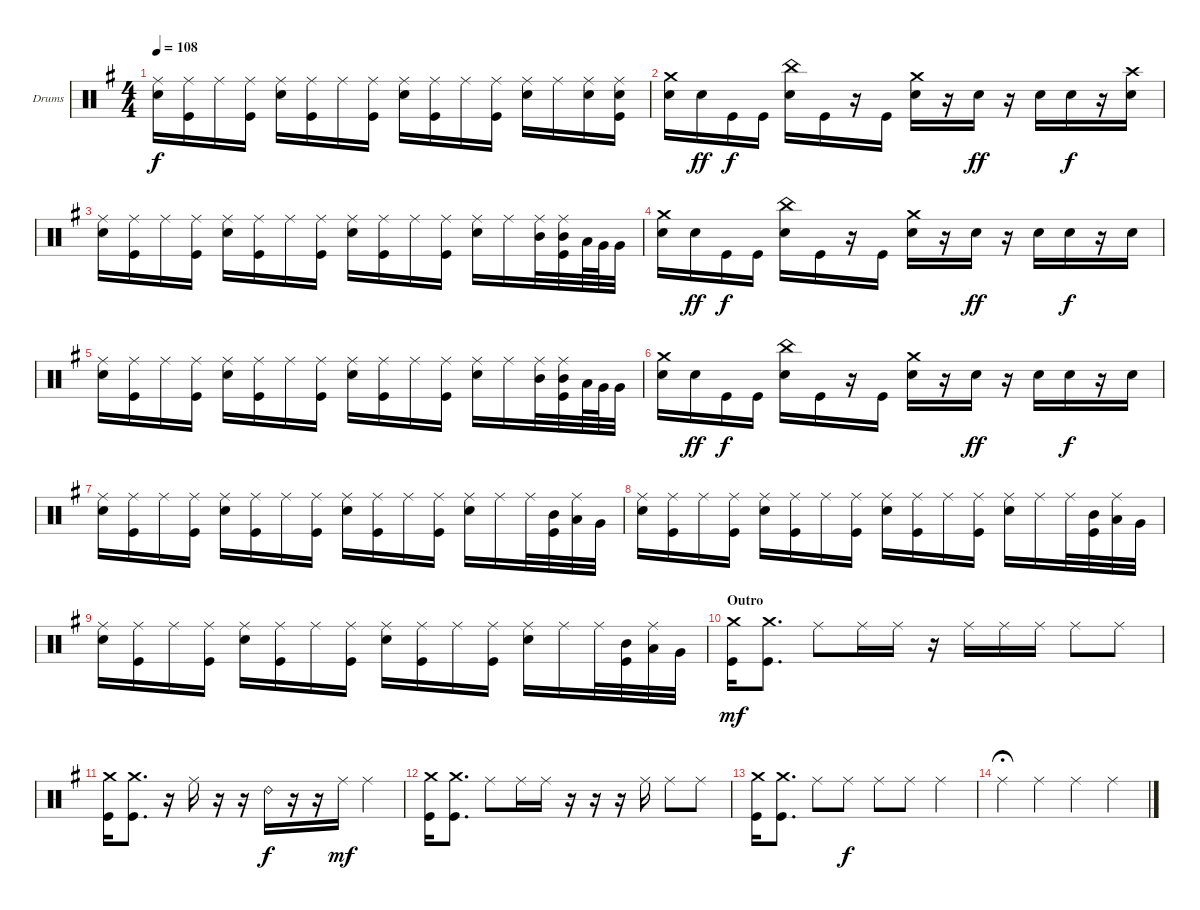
\defaultSystemsLayout 4
\bracketExtendMode groupsimilarinstruments
\firstSystemTrackNameOrientation horizontal
\otherSystemsTrackNameOrientation horizontal
\track ("Drum" "Drums") {instrument percussion}
\staff {score}
\articulation defaults
\ts (4 4)
\tempo 108
\clef neutral
\scale
1.04288
\ks g
("Ride (middle)" "Snare (hit) 2").16{dy f} ("Ride (middle)" "Kick (hit)").16 "Ride (middle)".16 ("Ride (middle)" "Kick (hit)").16 ("Ride (middle)" "Snare (hit) 2").16 ("Ride (middle)" "Kick (hit)").16 "Ride (middle)".16 ("Ride (middle)" "Kick (hit)").16 ("Ride (middle)" "Snare (hit) 2").16 ("Ride (middle)" "Kick (hit)").16 "Ride (middle)".16 ("Ride (middle)" "Kick (hit)").16 ("Ride (middle)" "Snare (hit) 2").16 "Ride (middle)".16 ("Ride (middle)" "Snare (hit) 2").16 ("Ride (middle)" "Snare (hit) 2" "Kick (hit)").16 |
\scale
0.957125 ("Crash medium (hit)" "Snare (hit) 2").16 "Snare (hit) 2".16{dy ff} "Kick (hit)".16{dy f} "Kick (hit)".16 ("China (hit)" "Snare (hit) 2").16 "Kick (hit)".16 r.16 "Kick (hit)".16 ("Crash medium (hit)" "Snare (hit) 2").16 r.16 "Snare (hit) 2".16{dy ff} r.16 "Snare (hit) 2".16 "Snare (hit) 2".16{dy f} r.16 ("Crash high (hit)" "Snare (hit) 2").16 |
\scale
1.04288 ("Ride (middle)" "Snare (hit) 2").16 ("Ride (middle)" "Kick (hit)").16 "Ride (middle)".16 ("Ride (middle)" "Kick (hit)").16 ("Ride (middle)" "Snare (hit) 2").16 ("Ride (middle)" "Kick (hit)").16 "Ride (middle)".16 ("Ride (middle)" "Kick (hit)").16 ("Ride (middle)" "Snare (hit) 2").16 ("Ride (middle)" "Kick (hit)").16 "Ride (middle)".16 ("Ride (middle)" "Kick (hit)").16 ("Ride (middle)" "Snare (hit) 2").16 "Ride (middle)".16 ("Mid Tom (hit)" "Ride (middle)").32 ("Mid Tom (hit)" "Ride (middle)" "Kick (hit)").32 "Low Tom (hit)".64 "Very Low Tom (hit)".64 "Very Low Tom (hit)".32 |
\scale
0.957125 ("Crash medium (hit)" "Snare (hit) 2").16 "Snare (hit) 2".16{dy ff} "Kick (hit)".16{dy f} "Kick (hit)".16 ("China (hit)" "Snare (hit) 2").16 "Kick (hit)".16 r.16 "Kick (hit)".16 ("Crash medium (hit)" "Snare (hit) 2").16 r.16 "Snare (hit) 2".16{dy ff} r.16 "Snare (hit) 2".16 "Snare (hit) 2".16{dy f} r.16 "Snare (hit) 2".16 |
\scale
1.04288 ("Ride (middle)" "Snare (hit) 2").16 ("Ride (middle)" "Kick (hit)").16 "Ride (middle)".16 ("Ride (middle)" "Kick (hit)").16 ("Ride (middle)" "Snare (hit) 2").16 ("Ride (middle)" "Kick (hit)").16 "Ride (middle)".16 ("Ride (middle)" "Kick (hit)").16 ("Ride (middle)" "Snare (hit) 2").16 ("Ride (middle)" "Kick (hit)").16 "Ride (middle)".16 ("Ride (middle)" "Kick (hit)").16 ("Ride (middle)" "Snare (hit) 2").16 "Ride (middle)".16 ("Mid Tom (hit)" "Ride (middle)").32 ("Mid Tom (hit)" "Ride (middle)" "Kick (hit)").32 "Low Tom (hit)".64 "Very Low Tom (hit)".64 "Very Low Tom (hit)".32 |
\scale
0.957125 ("Crash medium (hit)" "Snare (hit) 2").16 "Snare (hit) 2".16{dy ff} "Kick (hit)".16{dy f} "Kick (hit)".16 ("China (hit)" "Snare (hit) 2").16 "Kick (hit)".16 r.16 "Kick (hit)".16 ("Crash medium (hit)" "Snare (hit) 2").16 r.16 "Snare (hit) 2".16{dy ff} r.16 "Snare (hit) 2".16 "Snare (hit) 2".16{dy f} r.16 "Snare (hit) 2".16 |
\scale
1.04288 ("Ride (middle)" "Snare (hit) 2").16 ("Ride (middle)" "Kick (hit)").16 "Ride (middle)".16 ("Ride (middle)" "Kick (hit)").16 ("Ride (middle)" "Snare (hit) 2").16 ("Ride (middle)" "Kick (hit)").16 "Ride (middle)".16 ("Ride (middle)" "Kick (hit)").16 ("Ride (middle)" "Snare (hit) 2").16 ("Ride (middle)" "Kick (hit)").16 "Ride (middle)".16 ("Ride (middle)" "Kick (hit)").16 ("Ride (middle)" "Snare (hit) 2").16 "Ride (middle)".16 "Ride (middle)".32 ("Mid Tom (hit)" "Kick (hit)").32 ("Low Tom (hit)" "Ride (middle)").32 "Very Low Tom (hit)".32 |
\scale
0.957125 ("Ride (middle)" "Snare (hit) 2").16 ("Ride (middle)" "Kick (hit)").16 "Ride (middle)".16 ("Ride (middle)" "Kick (hit)").16 ("Ride (middle)" "Snare (hit) 2").16 ("Ride (middle)" "Kick (hit)").16 "Ride (middle)".16 ("Ride (middle)" "Kick (hit)").16 ("Ride (middle)" "Snare (hit) 2").16 ("Ride (middle)" "Kick (hit)").16 "Ride (middle)".16 ("Ride (middle)" "Kick (hit)").16 ("Ride (middle)" "Snare (hit) 2").16 "Ride (middle)".16 "Ride (middle)".32 ("Mid Tom (hit)" "Kick (hit)").32 ("Low Tom (hit)" "Ride (middle)").32 "Very Low Tom (hit)".32 |
\scale
1.04288 ("Ride (middle)" "Snare (hit) 2").16 ("Ride (middle)" "Kick (hit)").16 "Ride (middle)".16 ("Ride (middle)" "Kick (hit)").16 ("Ride (middle)" "Snare (hit) 2").16 ("Ride (middle)" "Kick (hit)").16 "Ride (middle)".16 ("Ride (middle)" "Kick (hit)").16 ("Ride (middle)" "Snare (hit) 2").16 ("Ride (middle)" "Kick (hit)").16 "Ride (middle)".16 ("Ride (middle)" "Kick (hit)").16 ("Ride (middle)" "Snare (hit) 2").16 "Ride (middle)".16 "Ride (middle)".32 ("Mid Tom (hit)" "Kick (hit)").32 ("Low Tom (hit)" "Ride (middle)").32 "Very Low Tom (hit)".32 |
\section ("" "Outro")
\scale
0.957125 ("Crash medium (hit)" "Kick (hit)").16{dy mf} ("Crash medium (hit)" "Kick (hit)").8{d} "Ride (middle)".8 "Ride (middle)".16 "Ride (middle)".16 r.16 "Ride (middle)".16 "Ride (middle)".16 "Ride (middle)".16 "Ride (middle)".8 "Ride (middle)".8 |
\scale
1.04288 ("Crash medium (hit)" "Kick (hit)").16 ("Crash medium (hit)" "Kick (hit)").8{d} r.16 "Ride (middle)".16 r.16 r.16 "Ride (bell) 2".16{dy f} r.16 r.16 "Ride (middle)".16{dy mf} "Ride (middle)".4 |
\scale
0.957125 ("Crash medium (hit)" "Kick (hit)").16 ("Crash medium (hit)" "Kick (hit)").8{d} "Ride (middle)".8 "Ride (middle)".16 "Ride (middle)".16 r.16 r.16 r.16 "Ride (middle)".16 "Ride (middle)".8 "Ride (middle)".8 |
\scale
1.04288 ("Crash medium (hit)" "Kick (hit)").16 ("Crash medium (hit)" "Kick (hit)").8{d} "Ride (middle)".8 "Ride (middle)".8{dy f} "Ride (middle)".8 "Ride (middle)".8 "Ride (middle)".4 |
\scale
0.957125 "Ride (middle)".4{fermata (medium 0.5)} "Ride (middle)".4 "Ride (middle)".4 "Ride (middle)".4
